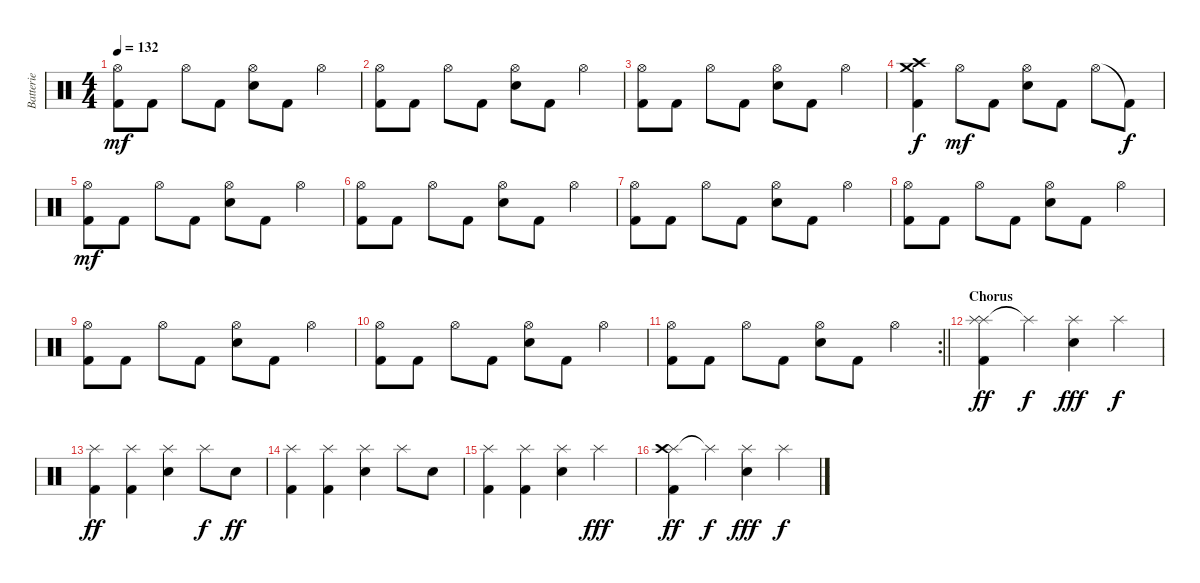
\track ("Batterie" "Batterie") {instrument percussion}
\staff {score}
\articulation defaults
\ts (4 4)
\tempo 132
\clef neutral
\ks c
("Hi-Hat (open)" "Kick (hit) 2").8{dy mf} "Kick (hit) 2".8 "Hi-Hat (open)".8 "Kick (hit) 2".8 ("Hi-Hat (open)" "Electric Snare (hit)").8 "Kick (hit) 2".8 "Hi-Hat (open)".4 |
("Hi-Hat (open)" "Kick (hit) 2").8 "Kick (hit) 2".8 "Hi-Hat (open)".8 "Kick (hit) 2".8 ("Hi-Hat (open)" "Electric Snare (hit)").8 "Kick (hit) 2".8 "Hi-Hat (open)".4 |
("Hi-Hat (open)" "Kick (hit) 2").8 "Kick (hit) 2".8 "Hi-Hat (open)".8 "Kick (hit) 2".8 ("Hi-Hat (open)" "Electric Snare (hit)").8 "Kick (hit) 2".8 "Hi-Hat (open)".4 |
("Crash high (hit)" "Crash medium (hit)" "Kick (hit) 2").4{dy f} "Hi-Hat (open)".8{dy mf} "Kick (hit) 2".8 ("Hi-Hat (open)" "Electric Snare (hit)").8 "Kick (hit) 2".8 "Hi-Hat (open)".8 "Kick (hit) 2"{t}.8{dy f} |
("Hi-Hat (open)" "Kick (hit) 2").8{dy mf} "Kick (hit) 2".8 "Hi-Hat (open)".8 "Kick (hit) 2".8 ("Hi-Hat (open)" "Electric Snare (hit)").8 "Kick (hit) 2".8 "Hi-Hat (open)".4 |
("Hi-Hat (open)" "Kick (hit) 2").8 "Kick (hit) 2".8 "Hi-Hat (open)".8 "Kick (hit) 2".8 ("Hi-Hat (open)" "Electric Snare (hit)").8 "Kick (hit) 2".8 "Hi-Hat (open)".4 |
("Hi-Hat (open)" "Kick (hit) 2").8 "Kick (hit) 2".8 "Hi-Hat (open)".8 "Kick (hit) 2".8 ("Hi-Hat (open)" "Electric Snare (hit)").8 "Kick (hit) 2".8 "Hi-Hat (open)".4 |
("Hi-Hat (open)" "Kick (hit) 2").8 "Kick (hit) 2".8 "Hi-Hat (open)".8 "Kick (hit) 2".8 ("Hi-Hat (open)" "Electric Snare (hit)").8 "Kick (hit) 2".8 "Hi-Hat (open)".4 |
("Hi-Hat (open)" "Kick (hit) 2").8 "Kick (hit) 2".8 "Hi-Hat (open)".8 "Kick (hit) 2".8 ("Hi-Hat (open)" "Electric Snare (hit)").8 "Kick (hit) 2".8 "Hi-Hat (open)".4 |
("Hi-Hat (open)" "Kick (hit) 2").8 "Kick (hit) 2".8 "Hi-Hat (open)".8 "Kick (hit) 2".8 ("Hi-Hat (open)" "Electric Snare (hit)").8 "Kick (hit) 2".8 "Hi-Hat (open)".4 |
\rc 2
\barLineRight lightlight
("Hi-Hat (open)" "Kick (hit) 2").8 "Kick (hit) 2".8 "Hi-Hat (open)".8 "Kick (hit) 2".8 ("Hi-Hat (open)" "Electric Snare (hit)").8 "Kick (hit) 2".8 "Hi-Hat (open)".4 |
\section ("" "Chorus")
("Splash (hit)" "Splash (hit)" "Kick (hit) 2").4{dy ff} "Splash (hit)"{t}.4{dy f} ("Splash (hit)" "Electric Snare (hit)").4{dy fff} "Splash (hit)".4{dy f} |
("Splash (hit)" "Kick (hit) 2").4{dy ff} ("Splash (hit)" "Kick (hit) 2").4 ("Splash (hit)" "Electric Snare (hit)").4 "Splash (hit)".8{dy f} "Electric Snare (hit)".8{dy ff} |
("Splash (hit)" "Kick (hit) 2").4 ("Splash (hit)" "Kick (hit) 2").4 ("Splash (hit)" "Electric Snare (hit)").4 "Splash (hit)".8 "Electric Snare (hit)".8 |
("Splash (hit)" "Kick (hit) 2").4 ("Splash (hit)" "Kick (hit) 2").4 ("Splash (hit)" "Electric Snare (hit)").4 "Splash (hit)".4{dy fff} |
("Splash (hit)" "Crash high (hit)" "Kick (hit) 2").4{dy ff} "Splash (hit)"{t}.4{dy f} ("Splash (hit)" "Electric Snare (hit)").4{dy fff} "Splash (hit)".4{dy f}
